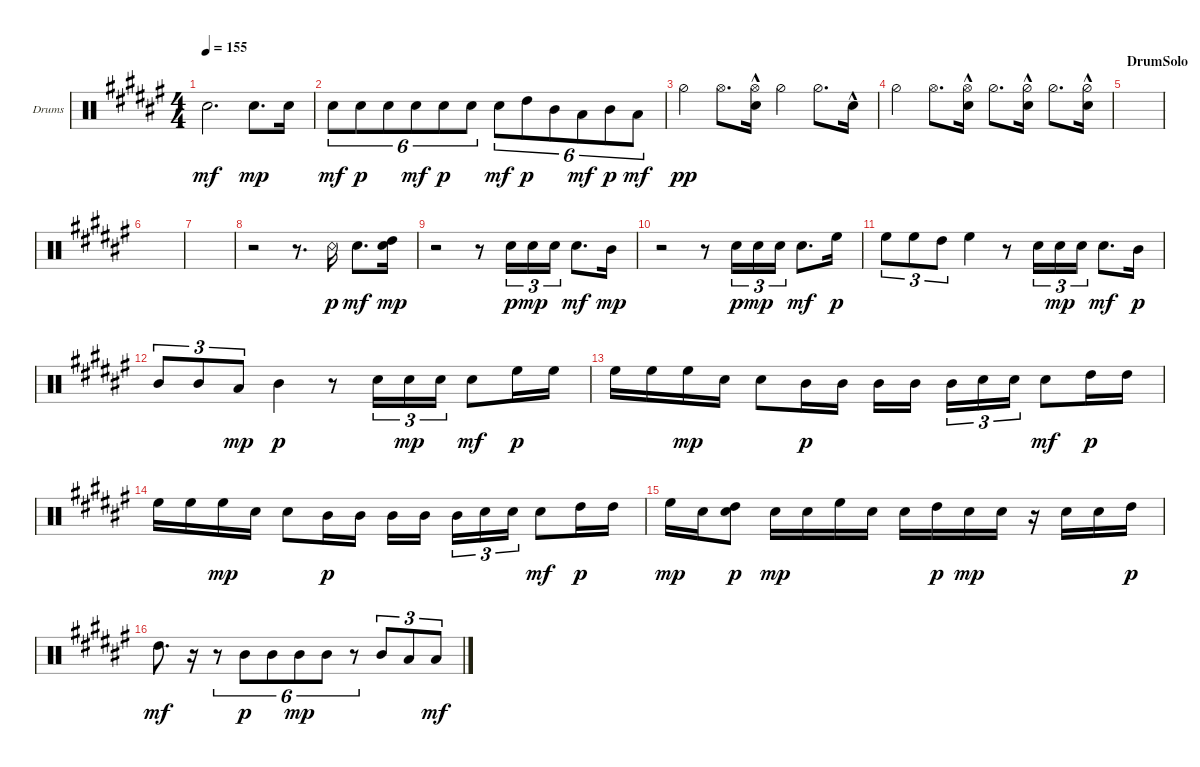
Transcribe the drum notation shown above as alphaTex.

\bracketExtendMode groupsimilarinstruments
\firstSystemTrackNameOrientation horizontal
\otherSystemsTrackNameOrientation horizontal
\track ("Drums" "Drums") {instrument percussion}
\staff {score}
\articulation defaults
\ts (4 4)
\tempo 155
\clef neutral
\ks f# "Snare (hit) 2".2{d dy mf} "Snare (hit) 2".8{d dy mp} "Snare (hit) 2".16
|
"Snare (hit) 2".8{tu (6 4) dy mf} "Snare (hit) 2".8{tu (6 4) dy p} "Snare (hit) 2".8{tu (6 4)} "Snare (hit) 2".8{tu (6 4) dy mf} "Snare (hit) 2".8{tu (6 4) dy p} "Snare (hit) 2".8{tu (6 4)} "Snare (hit) 2".8{tu (6 4) dy mf} "High Tom (hit)".8{tu (6 4) dy p} "Mid Tom (hit)".8{tu (6 4)} "Low Tom (hit)".8{tu (6 4) dy mf} "Mid Tom (hit)".8{tu (6 4) dy p} "Low Tom (hit)".8{tu (6 4) dy mf} |
"Hi-Hat (half)".4{dy pp} "Hi-Hat (open)".8{d} ("Hi-Hat (open)" "Snare (hit) 2"{hac}).16 "Hi-Hat (half)".4 "Hi-Hat (half)".8{d} "Snare (hit) 2"{hac}.16 |
"Hi-Hat (half)".4 "Hi-Hat (open)".8{d} ("Hi-Hat (open)" "Snare (hit) 2"{hac}).16 "Hi-Hat (half)".8{d} ("Hi-Hat (half)" "Snare (hit) 2"{hac}).16 "Hi-Hat (half)".8{d} ("Snare (hit) 2"{hac} "Hi-Hat (half)").16 |
\section ("" "DrumSolo")
|
|
|
r.2 r.8{d} "Snare (rim shot)".16{dy p} "Snare (hit) 2".8{d dy mf} ("Snare (hit) 2" "High Tom (hit)").16{dy mp} |
r.2 r.8 "Snare (hit) 2".16{tu (3 2) dy p} "Snare (hit) 2".16{tu (3 2) dy mp} "Snare (hit) 2".16{tu (3 2)} "Snare (hit) 2".8{d dy mf} "Mid Tom (hit)".16{dy mp} |
r.2 r.8 "Snare (hit) 2".16{tu (3 2) dy p} "Snare (hit) 2".16{tu (3 2) dy mp} "Snare (hit) 2".16{tu (3 2)} "Snare (hit) 2".8{d dy mf} "High Floor Tom (hit)".16{dy p} |
"High Floor Tom (hit)".8{tu (3 2)} "High Floor Tom (hit)".8{tu (3 2)} "High Tom (hit)".8{tu (3 2)} "High Floor Tom (hit)".4 r.8 "Snare (hit) 2".16{tu (3 2)} "Snare (hit) 2".16{tu (3 2) dy mp} "Snare (hit) 2".16{tu (3 2)} "Snare (hit) 2".8{d dy mf} "Mid Tom (hit)".16{dy p} |
"Mid Tom (hit)".8{tu (3 2)} "Mid Tom (hit)".8{tu (3 2)} "Low Tom (hit)".8{tu (3 2) dy mp} "Mid Tom (hit)".4{dy p} r.8 "Snare (hit) 2".16{tu (3 2)} "Snare (hit) 2".16{tu (3 2) dy mp} "Snare (hit) 2".16{tu (3 2)} "Snare (hit) 2".8{dy mf} "High Floor Tom (hit)".16{dy p} "High Floor Tom (hit)".16 |
"High Floor Tom (hit)".16 "High Floor Tom (hit)".16 "High Floor Tom (hit)".16{dy mp} "Snare (hit) 2".16 "Snare (hit) 2".8 "Mid Tom (hit)".16{dy p} "Mid Tom (hit)".16 "Mid Tom (hit)".16 "Mid Tom (hit)".16 "Mid Tom (hit)".16{tu (3 2)} "Snare (hit) 2".16{tu (3 2)} "Snare (hit) 2".16{tu (3 2)} "Snare (hit) 2".8{dy mf} "High Tom (hit)".16{dy p} "High Tom (hit)".16 |
"High Floor Tom (hit)".16 "High Floor Tom (hit)".16 "High Floor Tom (hit)".16{dy mp} "Snare (hit) 2".16 "Snare (hit) 2".8 "Mid Tom (hit)".16{dy p} "Mid Tom (hit)".16 "Mid Tom (hit)".16 "Mid Tom (hit)".16 "Mid Tom (hit)".16{tu (3 2)} "Snare (hit) 2".16{tu (3 2)} "Snare (hit) 2".16{tu (3 2)} "Snare (hit) 2".8{dy mf} "High Tom (hit)".16{dy p} "High Tom (hit)".16 |
"High Floor Tom (hit)".16{dy mp} "Snare (hit) 2".16 ("Snare (hit) 2" "High Tom (hit)").8{dy p} "Snare (hit) 2".16{dy mp} "Snare (hit) 2".16 "High Floor Tom (hit)".16 "Snare (hit) 2".16 "Snare (hit) 2".16 "High Tom (hit)".16{dy p} "Snare (hit) 2".16{dy mp} "Snare (hit) 2".16 r.16 "Snare (hit) 2".16 "Snare (hit) 2".16 "High Tom (hit)".16{dy p} |
"High Tom (hit)".8{d dy mf} r.16 r.8{tu (6 4)} "Mid Tom (hit)".8{tu (6 4) dy p} "Mid Tom (hit)".8{tu (6 4)} "Mid Tom (hit)".8{tu (6 4) dy mp} "Mid Tom (hit)".8{tu (6 4)} r.8{tu (6 4)} "Mid Tom (hit)".8{tu (3 2)} "Low Tom (hit)".8{tu (3 2)} "Low Tom (hit)".8{tu (3 2) dy mf}
